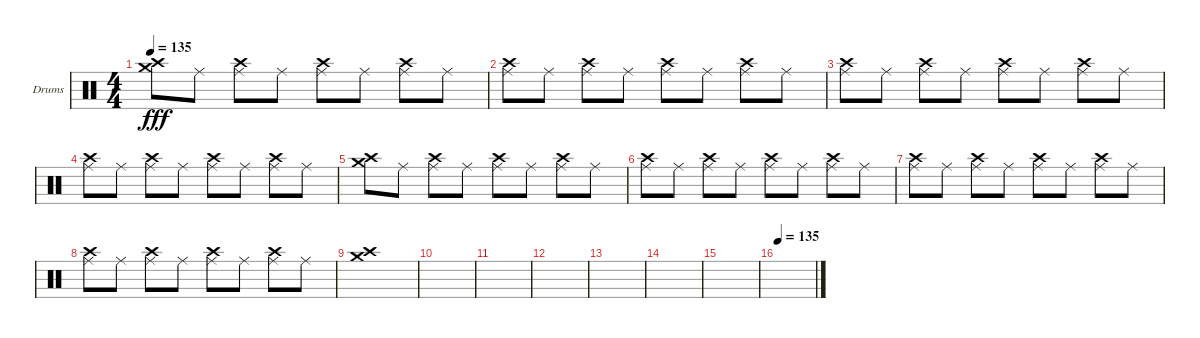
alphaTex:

\defaultSystemsLayout 4
\bracketExtendMode groupsimilarinstruments
\firstSystemTrackNameOrientation horizontal
\otherSystemsTrackNameOrientation horizontal
\track ("Helders" "Drums") {instrument percussion}
\staff {score}
\articulation defaults
\ts (4 4)
\tempo 135
\clef neutral
\ks c
("Crash high (hit)" "Crash medium (hit)").8{dy fff} "Ride (middle)".8 ("Ride (middle)" "Crash high (hit)").8 "Ride (middle)".8 ("Ride (middle)" "Crash high (hit)").8 "Ride (middle)".8 ("Ride (middle)" "Crash high (hit)").8 "Ride (middle)".8 |
("Ride (middle)" "Crash high (hit)").8 "Ride (middle)".8 ("Ride (middle)" "Crash high (hit)").8 "Ride (middle)".8 ("Ride (middle)" "Crash high (hit)").8 "Ride (middle)".8 ("Ride (middle)" "Crash high (hit)").8 "Ride (middle)".8 |
("Ride (middle)" "Crash high (hit)").8 "Ride (middle)".8 ("Ride (middle)" "Crash high (hit)").8 "Ride (middle)".8 ("Ride (middle)" "Crash high (hit)").8 "Ride (middle)".8 ("Ride (middle)" "Crash high (hit)").8 "Ride (middle)".8 |
("Ride (middle)" "Crash high (hit)").8 "Ride (middle)".8 ("Ride (middle)" "Crash high (hit)").8 "Ride (middle)".8 ("Ride (middle)" "Crash high (hit)").8 "Ride (middle)".8 ("Ride (middle)" "Crash high (hit)").8 "Ride (middle)".8 |
("Crash high (hit)" "Crash medium (hit)").8 "Ride (middle)".8 ("Ride (middle)" "Crash high (hit)").8 "Ride (middle)".8 ("Ride (middle)" "Crash high (hit)").8 "Ride (middle)".8 ("Ride (middle)" "Crash high (hit)").8 "Ride (middle)".8 |
("Ride (middle)" "Crash high (hit)").8 "Ride (middle)".8 ("Ride (middle)" "Crash high (hit)").8 "Ride (middle)".8 ("Ride (middle)" "Crash high (hit)").8 "Ride (middle)".8 ("Ride (middle)" "Crash high (hit)").8 "Ride (middle)".8 |
("Ride (middle)" "Crash high (hit)").8 "Ride (middle)".8 ("Ride (middle)" "Crash high (hit)").8 "Ride (middle)".8 ("Ride (middle)" "Crash high (hit)").8 "Ride (middle)".8 ("Ride (middle)" "Crash high (hit)").8 "Ride (middle)".8 |
("Ride (middle)" "Crash high (hit)").8 "Ride (middle)".8 ("Ride (middle)" "Crash high (hit)").8 "Ride (middle)".8 ("Ride (middle)" "Crash high (hit)").8 "Ride (middle)".8 ("Ride (middle)" "Crash high (hit)").8 "Ride (middle)".8 |
("Crash high (hit)" "Crash medium (hit)").1 |
|
|
|
|
|
|
\tempo 135
